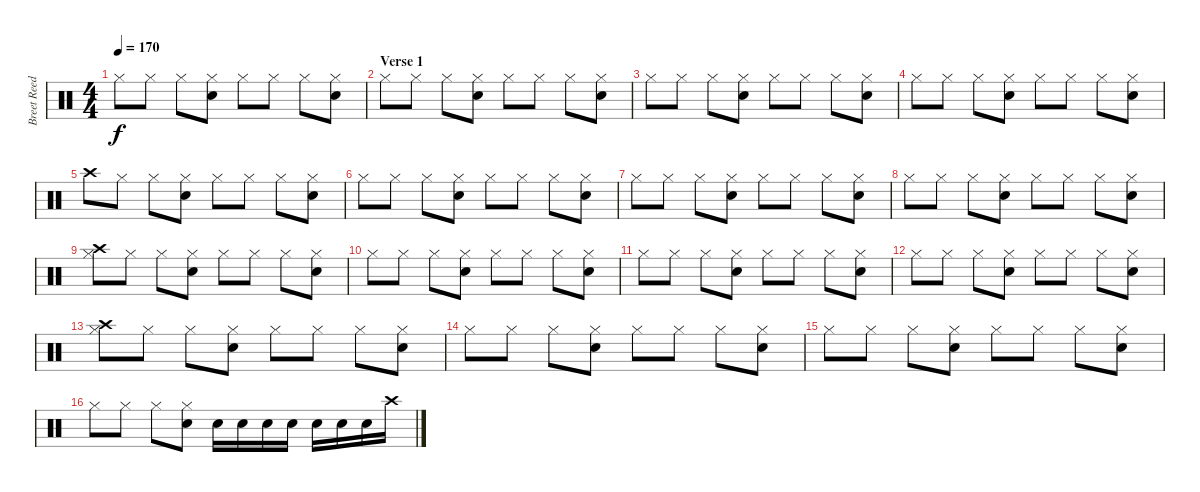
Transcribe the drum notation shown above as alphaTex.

\track ("Breet Reed" "Breet Reed") {instrument percussion}
\staff {score}
\articulation defaults
\ts (4 4)
\tempo 170
\clef neutral
\ks c "Hi-Hat (closed)".8{dy f} "Hi-Hat (closed)".8 "Hi-Hat (closed)".8
("Snare (hit) 2" "Hi-Hat (closed)").8 "Hi-Hat (closed)".8 "Hi-Hat (closed)".8 "Hi-Hat (closed)".8 ("Snare (hit) 2" "Hi-Hat (closed)").8 |
\section ("" "Verse 1")
"Hi-Hat (closed)".8 "Hi-Hat (closed)".8 "Hi-Hat (closed)".8 ("Snare (hit) 2" "Hi-Hat (closed)").8 "Hi-Hat (closed)".8 "Hi-Hat (closed)".8 "Hi-Hat (closed)".8 ("Snare (hit) 2" "Hi-Hat (closed)").8 |
"Hi-Hat (closed)".8 "Hi-Hat (closed)".8 "Hi-Hat (closed)".8 ("Snare (hit) 2" "Hi-Hat (closed)").8 "Hi-Hat (closed)".8 "Hi-Hat (closed)".8 "Hi-Hat (closed)".8 ("Snare (hit) 2" "Hi-Hat (closed)").8 |
"Hi-Hat (closed)".8 "Hi-Hat (closed)".8 "Hi-Hat (closed)".8 ("Snare (hit) 2" "Hi-Hat (closed)").8 "Hi-Hat (closed)".8 "Hi-Hat (closed)".8 "Hi-Hat (closed)".8 ("Snare (hit) 2" "Hi-Hat (closed)").8 |
"Crash high (hit)".8 "Hi-Hat (closed)".8 "Hi-Hat (closed)".8 ("Snare (hit) 2" "Hi-Hat (closed)").8 "Hi-Hat (closed)".8 "Hi-Hat (closed)".8 "Hi-Hat (closed)".8 ("Snare (hit) 2" "Hi-Hat (closed)").8 |
"Hi-Hat (closed)".8 "Hi-Hat (closed)".8 "Hi-Hat (closed)".8 ("Snare (hit) 2" "Hi-Hat (closed)").8 "Hi-Hat (closed)".8 "Hi-Hat (closed)".8 "Hi-Hat (closed)".8 ("Snare (hit) 2" "Hi-Hat (closed)").8 |
"Hi-Hat (closed)".8 "Hi-Hat (closed)".8 "Hi-Hat (closed)".8 ("Snare (hit) 2" "Hi-Hat (closed)").8 "Hi-Hat (closed)".8 "Hi-Hat (closed)".8 "Hi-Hat (closed)".8 ("Snare (hit) 2" "Hi-Hat (closed)").8 |
"Hi-Hat (closed)".8 "Hi-Hat (closed)".8 "Hi-Hat (closed)".8 ("Snare (hit) 2" "Hi-Hat (closed)").8 "Hi-Hat (closed)".8 "Hi-Hat (closed)".8 "Hi-Hat (closed)".8 ("Snare (hit) 2" "Hi-Hat (closed)").8 |
("Crash high (hit)" "Hi-Hat (closed)").8 "Hi-Hat (closed)".8 "Hi-Hat (closed)".8 ("Snare (hit) 2" "Hi-Hat (closed)").8 "Hi-Hat (closed)".8 "Hi-Hat (closed)".8 "Hi-Hat (closed)".8 ("Snare (hit) 2" "Hi-Hat (closed)").8 |
"Hi-Hat (closed)".8 "Hi-Hat (closed)".8 "Hi-Hat (closed)".8 ("Snare (hit) 2" "Hi-Hat (closed)").8 "Hi-Hat (closed)".8 "Hi-Hat (closed)".8 "Hi-Hat (closed)".8 ("Snare (hit) 2" "Hi-Hat (closed)").8 |
"Hi-Hat (closed)".8 "Hi-Hat (closed)".8 "Hi-Hat (closed)".8 ("Snare (hit) 2" "Hi-Hat (closed)").8 "Hi-Hat (closed)".8 "Hi-Hat (closed)".8 "Hi-Hat (closed)".8 ("Snare (hit) 2" "Hi-Hat (closed)").8 |
"Hi-Hat (closed)".8 "Hi-Hat (closed)".8 "Hi-Hat (closed)".8 ("Snare (hit) 2" "Hi-Hat (closed)").8 "Hi-Hat (closed)".8 "Hi-Hat (closed)".8 "Hi-Hat (closed)".8 ("Snare (hit) 2" "Hi-Hat (closed)").8 |
("Crash high (hit)" "Hi-Hat (closed)").8 "Hi-Hat (closed)".8 "Hi-Hat (closed)".8 ("Snare (hit) 2" "Hi-Hat (closed)").8 "Hi-Hat (closed)".8 "Hi-Hat (closed)".8 "Hi-Hat (closed)".8 ("Snare (hit) 2" "Hi-Hat (closed)").8 |
"Hi-Hat (closed)".8 "Hi-Hat (closed)".8 "Hi-Hat (closed)".8 ("Snare (hit) 2" "Hi-Hat (closed)").8 "Hi-Hat (closed)".8 "Hi-Hat (closed)".8 "Hi-Hat (closed)".8 ("Snare (hit) 2" "Hi-Hat (closed)").8 |
"Hi-Hat (closed)".8 "Hi-Hat (closed)".8 "Hi-Hat (closed)".8 ("Snare (hit) 2" "Hi-Hat (closed)").8 "Hi-Hat (closed)".8 "Hi-Hat (closed)".8 "Hi-Hat (closed)".8 ("Snare (hit) 2" "Hi-Hat (closed)").8 |
"Hi-Hat (closed)".8 "Hi-Hat (closed)".8 "Hi-Hat (closed)".8 ("Snare (hit) 2" "Hi-Hat (closed)").8 "Snare (hit) 2".16 "Snare (hit) 2".16 "Snare (hit) 2".16 "Snare (hit) 2".16 "Snare (hit) 2".16 "Snare (hit) 2".16 "Snare (hit) 2".16 "Crash high (hit)".16
